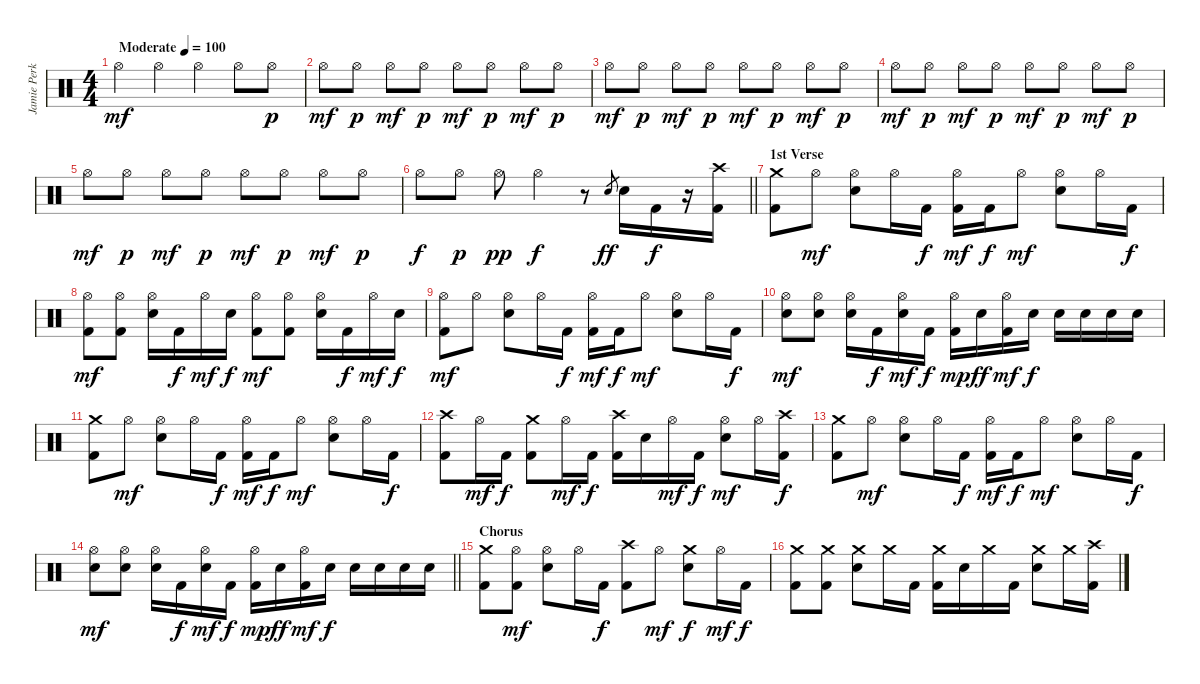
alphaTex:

\track ("Jamie Perkins" "Jamie Perk") {instrument percussion}
\staff {score}
\articulation defaults
\ts (4 4)
\tempo (100 "Moderate")
\clef neutral
\ks c "Hi-Hat (open)".4{dy mf} "Hi-Hat (open)".4 "Hi-Hat (open)".4 "Hi-Hat (open)".8 "Hi-Hat (open)".8{dy p}
|
"Hi-Hat (open)".8{dy mf} "Hi-Hat (open)".8{dy p} "Hi-Hat (open)".8{dy mf} "Hi-Hat (open)".8{dy p} "Hi-Hat (open)".8{dy mf} "Hi-Hat (open)".8{dy p} "Hi-Hat (open)".8{dy mf} "Hi-Hat (open)".8{dy p} |
"Hi-Hat (open)".8{dy mf} "Hi-Hat (open)".8{dy p} "Hi-Hat (open)".8{dy mf} "Hi-Hat (open)".8{dy p} "Hi-Hat (open)".8{dy mf} "Hi-Hat (open)".8{dy p} "Hi-Hat (open)".8{dy mf} "Hi-Hat (open)".8{dy p} |
"Hi-Hat (open)".8{dy mf} "Hi-Hat (open)".8{dy p} "Hi-Hat (open)".8{dy mf} "Hi-Hat (open)".8{dy p} "Hi-Hat (open)".8{dy mf} "Hi-Hat (open)".8{dy p} "Hi-Hat (open)".8{dy mf} "Hi-Hat (open)".8{dy p} |
"Hi-Hat (open)".8{dy mf} "Hi-Hat (open)".8{dy p} "Hi-Hat (open)".8{dy mf} "Hi-Hat (open)".8{dy p} "Hi-Hat (open)".8{dy mf} "Hi-Hat (open)".8{dy p} "Hi-Hat (open)".8{dy mf} "Hi-Hat (open)".8{dy p} |
\barLineRight lightlight "Hi-Hat (open)".8{dy f} "Hi-Hat (open)".8{dy p} "Hi-Hat (open)".8{dy pp} "Hi-Hat (open)".4{dy f}
r.8 "Snare (hit) 2".8{gr dy ff} "Snare (hit) 2".16 "Kick (hit) 2".16{dy f} r.16 ("Crash high (hit)" "Kick (hit) 2").16 |
\section ("" "1st Verse")
("Crash medium (hit)" "Kick (hit) 2").8 "Hi-Hat (open)".8{dy mf} ("Hi-Hat (open)" "Snare (hit) 2").8 "Hi-Hat (open)".16 "Kick (hit) 2".16{dy f} ("Hi-Hat (open)" "Kick (hit) 2").16{dy mf} "Kick (hit) 2".16{dy f} "Hi-Hat (open)".8{dy mf} ("Hi-Hat (open)" "Snare (hit) 2").8 "Hi-Hat (open)".16 "Kick (hit) 2".16{dy f} |
("Hi-Hat (open)" "Kick (hit) 2").8{dy mf} ("Hi-Hat (open)" "Kick (hit) 2").8 ("Hi-Hat (open)" "Snare (hit) 2").16 "Kick (hit) 2".16{dy f} "Hi-Hat (open)".16{dy mf} "Snare (hit) 2".16{dy f} ("Hi-Hat (open)" "Kick (hit) 2").8{dy mf} ("Hi-Hat (open)" "Kick (hit) 2").8 ("Hi-Hat (open)" "Snare (hit) 2").16 "Kick (hit) 2".16{dy f} "Hi-Hat (open)".16{dy mf} "Snare (hit) 2".16{dy f} |
("Hi-Hat (open)" "Kick (hit) 2").8{dy mf} "Hi-Hat (open)".8 ("Hi-Hat (open)" "Snare (hit) 2").8 "Hi-Hat (open)".16 "Kick (hit) 2".16{dy f} ("Hi-Hat (open)" "Kick (hit) 2").16{dy mf} "Kick (hit) 2".16{dy f} "Hi-Hat (open)".8{dy mf} ("Hi-Hat (open)" "Snare (hit) 2").8 "Hi-Hat (open)".16 "Kick (hit) 2".16{dy f} |
("Hi-Hat (open)" "Snare (hit) 2").8{dy mf} ("Hi-Hat (open)" "Snare (hit) 2").8 ("Hi-Hat (open)" "Snare (hit) 2").16 "Kick (hit) 2".16{dy f} ("Hi-Hat (open)" "Snare (hit) 2").16{dy mf} "Kick (hit) 2".16{dy f} ("Hi-Hat (open)" "Kick (hit) 2").16{dy mp} "Snare (hit) 2".16{dy ff} ("Hi-Hat (open)" "Kick (hit) 2").16{dy mf} "Snare (hit) 2".16{dy f} "Snare (hit) 2".16 "Snare (hit) 2".16 "Snare (hit) 2".16 "Snare (hit) 2".16 |
("Crash medium (hit)" "Kick (hit) 2").8 "Hi-Hat (open)".8{dy mf} ("Hi-Hat (open)" "Snare (hit) 2").8 "Hi-Hat (open)".16 "Kick (hit) 2".16{dy f} ("Hi-Hat (open)" "Kick (hit) 2").16{dy mf} "Kick (hit) 2".16{dy f} "Hi-Hat (open)".8{dy mf} ("Hi-Hat (open)" "Snare (hit) 2").8 "Hi-Hat (open)".16 "Kick (hit) 2".16{dy f} |
("Crash high (hit)" "Kick (hit) 2").8 "Hi-Hat (open)".16{dy mf} "Kick (hit) 2".16{dy f} ("Crash medium (hit)" "Kick (hit) 2").8 "Hi-Hat (open)".16{dy mf} "Kick (hit) 2".16{dy f} ("Crash high (hit)" "Kick (hit) 2").16 "Snare (hit) 2".16 "Hi-Hat (open)".16{dy mf} "Kick (hit) 2".16{dy f} ("Hi-Hat (open)" "Snare (hit) 2").8{dy mf} "Hi-Hat (open)".16 ("Crash high (hit)" "Kick (hit) 2").16{dy f} |
("Crash medium (hit)" "Kick (hit) 2").8 "Hi-Hat (open)".8{dy mf} ("Hi-Hat (open)" "Snare (hit) 2").8 "Hi-Hat (open)".16 "Kick (hit) 2".16{dy f} ("Hi-Hat (open)" "Kick (hit) 2").16{dy mf} "Kick (hit) 2".16{dy f} "Hi-Hat (open)".8{dy mf} ("Hi-Hat (open)" "Snare (hit) 2").8 "Hi-Hat (open)".16 "Kick (hit) 2".16{dy f} |
\barLineRight lightlight
("Hi-Hat (open)" "Snare (hit) 2").8{dy mf} ("Hi-Hat (open)" "Snare (hit) 2").8 ("Hi-Hat (open)" "Snare (hit) 2").16 "Kick (hit) 2".16{dy f} ("Hi-Hat (open)" "Snare (hit) 2").16{dy mf} "Kick (hit) 2".16{dy f} ("Hi-Hat (open)" "Kick (hit) 2").16{dy mp} "Snare (hit) 2".16{dy ff} ("Hi-Hat (open)" "Kick (hit) 2").16{dy mf} "Snare (hit) 2".16{dy f} "Snare (hit) 2".16 "Snare (hit) 2".16 "Snare (hit) 2".16 "Snare (hit) 2".16 |
\section ("" "Chorus")
("Crash medium (hit)" "Kick (hit) 2").8 ("Hi-Hat (open)" "Kick (hit) 2").8{dy mf} ("Hi-Hat (open)" "Snare (hit) 2").8 "Hi-Hat (open)".16 "Kick (hit) 2".16{dy f} ("Crash high (hit)" "Kick (hit) 2").8 "Hi-Hat (open)".8{dy mf} ("Crash medium (hit)" "Snare (hit) 2").8{dy f} "Hi-Hat (open)".16{dy mf} "Kick (hit) 2".16{dy f} |
("Crash medium (hit)" "Kick (hit) 2").8 ("Crash medium (hit)" "Kick (hit) 2").8 ("Crash medium (hit)" "Snare (hit) 2").8 "Crash medium (hit)".16 "Kick (hit) 2".16 ("Crash medium (hit)" "Kick (hit) 2").16 "Snare (hit) 2".16 "Crash medium (hit)".16 "Kick (hit) 2".16 ("Crash medium (hit)" "Snare (hit) 2").8 "Crash medium (hit)".16 ("Crash high (hit)" "Kick (hit) 2").16
